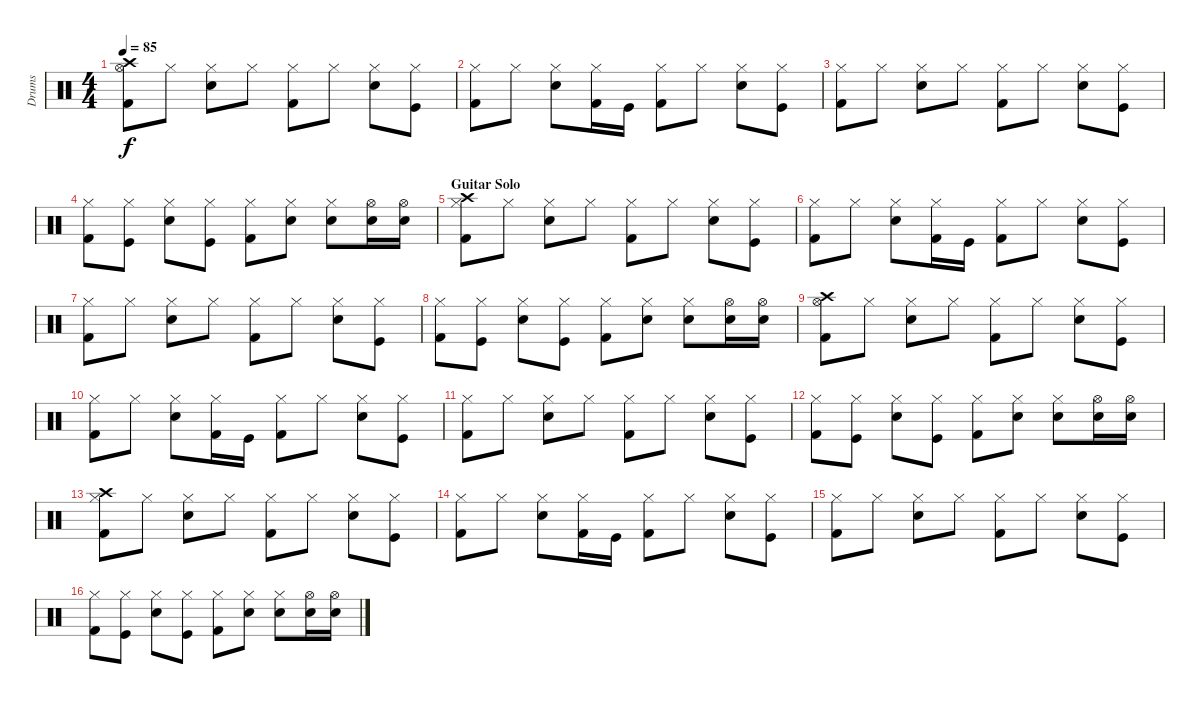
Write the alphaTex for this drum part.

\track ("Drums" "Drums") {instrument percussion}
\staff {score}
\articulation defaults
\ts (4 4)
\tempo 85
\clef neutral
\ks c
("Hi-Hat (open)" "Crash high (hit)" "Kick (hit) 2").8{dy f} "Hi-Hat (closed)".8 ("Hi-Hat (closed)" "Snare (hit) 2").8 "Hi-Hat (closed)".8 ("Hi-Hat (closed)" "Kick (hit) 2").8 "Hi-Hat (closed)".8 ("Hi-Hat (closed)" "Snare (hit) 2").8 ("Hi-Hat (closed)" "Kick (hit)").8 |
("Hi-Hat (closed)" "Kick (hit) 2").8 "Hi-Hat (closed)".8 ("Hi-Hat (closed)" "Snare (hit) 2").8 ("Hi-Hat (closed)" "Kick (hit) 2").16 "Kick (hit)".16 ("Hi-Hat (closed)" "Kick (hit) 2").8 "Hi-Hat (closed)".8 ("Hi-Hat (closed)" "Snare (hit) 2").8 ("Hi-Hat (closed)" "Kick (hit)").8 |
("Hi-Hat (closed)" "Kick (hit) 2").8 "Hi-Hat (closed)".8 ("Hi-Hat (closed)" "Snare (hit) 2").8 "Hi-Hat (closed)".8 ("Hi-Hat (closed)" "Kick (hit) 2").8 "Hi-Hat (closed)".8 ("Hi-Hat (closed)" "Snare (hit) 2").8 ("Hi-Hat (closed)" "Kick (hit)").8 |
("Hi-Hat (closed)" "Kick (hit) 2").8 ("Hi-Hat (closed)" "Kick (hit)").8 ("Hi-Hat (closed)" "Snare (hit) 2").8 ("Hi-Hat (closed)" "Kick (hit)").8 ("Hi-Hat (closed)" "Kick (hit) 2").8 ("Hi-Hat (closed)" "Snare (hit) 2").8 ("Hi-Hat (closed)" "Snare (hit) 2").8 ("Hi-Hat (open)" "Snare (hit) 2").16 ("Hi-Hat (open)" "Snare (hit) 2").16 |
\section ("" "Guitar Solo")
("Hi-Hat (closed)" "Crash high (hit)" "Kick (hit) 2").8 "Hi-Hat (closed)".8 ("Hi-Hat (closed)" "Snare (hit) 2").8 "Hi-Hat (closed)".8 ("Hi-Hat (closed)" "Kick (hit) 2").8 "Hi-Hat (closed)".8 ("Hi-Hat (closed)" "Snare (hit) 2").8 ("Hi-Hat (closed)" "Kick (hit)").8 |
("Hi-Hat (closed)" "Kick (hit) 2").8 "Hi-Hat (closed)".8 ("Hi-Hat (closed)" "Snare (hit) 2").8 ("Hi-Hat (closed)" "Kick (hit) 2").16 "Kick (hit)".16 ("Hi-Hat (closed)" "Kick (hit) 2").8 "Hi-Hat (closed)".8 ("Hi-Hat (closed)" "Snare (hit) 2").8 ("Hi-Hat (closed)" "Kick (hit)").8 |
("Hi-Hat (closed)" "Kick (hit) 2").8 "Hi-Hat (closed)".8 ("Hi-Hat (closed)" "Snare (hit) 2").8 "Hi-Hat (closed)".8 ("Hi-Hat (closed)" "Kick (hit) 2").8 "Hi-Hat (closed)".8 ("Hi-Hat (closed)" "Snare (hit) 2").8 ("Hi-Hat (closed)" "Kick (hit)").8 |
("Hi-Hat (closed)" "Kick (hit) 2").8 ("Hi-Hat (closed)" "Kick (hit)").8 ("Hi-Hat (closed)" "Snare (hit) 2").8 ("Hi-Hat (closed)" "Kick (hit)").8 ("Hi-Hat (closed)" "Kick (hit) 2").8 ("Hi-Hat (closed)" "Snare (hit) 2").8 ("Hi-Hat (closed)" "Snare (hit) 2").8 ("Hi-Hat (open)" "Snare (hit) 2").16 ("Hi-Hat (open)" "Snare (hit) 2").16 |
("Hi-Hat (open)" "Crash high (hit)" "Kick (hit) 2").8 "Hi-Hat (closed)".8 ("Hi-Hat (closed)" "Snare (hit) 2").8 "Hi-Hat (closed)".8 ("Hi-Hat (closed)" "Kick (hit) 2").8 "Hi-Hat (closed)".8 ("Hi-Hat (closed)" "Snare (hit) 2").8 ("Hi-Hat (closed)" "Kick (hit)").8 |
("Hi-Hat (closed)" "Kick (hit) 2").8 "Hi-Hat (closed)".8 ("Hi-Hat (closed)" "Snare (hit) 2").8 ("Hi-Hat (closed)" "Kick (hit) 2").16 "Kick (hit)".16 ("Hi-Hat (closed)" "Kick (hit) 2").8 "Hi-Hat (closed)".8 ("Hi-Hat (closed)" "Snare (hit) 2").8 ("Hi-Hat (closed)" "Kick (hit)").8 |
("Hi-Hat (closed)" "Kick (hit) 2").8 "Hi-Hat (closed)".8 ("Hi-Hat (closed)" "Snare (hit) 2").8 "Hi-Hat (closed)".8 ("Hi-Hat (closed)" "Kick (hit) 2").8 "Hi-Hat (closed)".8 ("Hi-Hat (closed)" "Snare (hit) 2").8 ("Hi-Hat (closed)" "Kick (hit)").8 |
("Hi-Hat (closed)" "Kick (hit) 2").8 ("Hi-Hat (closed)" "Kick (hit)").8 ("Hi-Hat (closed)" "Snare (hit) 2").8 ("Hi-Hat (closed)" "Kick (hit)").8 ("Hi-Hat (closed)" "Kick (hit) 2").8 ("Hi-Hat (closed)" "Snare (hit) 2").8 ("Hi-Hat (closed)" "Snare (hit) 2").8 ("Hi-Hat (open)" "Snare (hit) 2").16 ("Hi-Hat (open)" "Snare (hit) 2").16 |
("Hi-Hat (closed)" "Crash high (hit)" "Kick (hit) 2").8 "Hi-Hat (closed)".8 ("Hi-Hat (closed)" "Snare (hit) 2").8 "Hi-Hat (closed)".8 ("Hi-Hat (closed)" "Kick (hit) 2").8 "Hi-Hat (closed)".8 ("Hi-Hat (closed)" "Snare (hit) 2").8 ("Hi-Hat (closed)" "Kick (hit)").8 |
("Hi-Hat (closed)" "Kick (hit) 2").8 "Hi-Hat (closed)".8 ("Hi-Hat (closed)" "Snare (hit) 2").8 ("Hi-Hat (closed)" "Kick (hit) 2").16 "Kick (hit)".16 ("Hi-Hat (closed)" "Kick (hit) 2").8 "Hi-Hat (closed)".8 ("Hi-Hat (closed)" "Snare (hit) 2").8 ("Hi-Hat (closed)" "Kick (hit)").8 |
("Hi-Hat (closed)" "Kick (hit) 2").8 "Hi-Hat (closed)".8 ("Hi-Hat (closed)" "Snare (hit) 2").8 "Hi-Hat (closed)".8 ("Hi-Hat (closed)" "Kick (hit) 2").8 "Hi-Hat (closed)".8 ("Hi-Hat (closed)" "Snare (hit) 2").8 ("Hi-Hat (closed)" "Kick (hit)").8 |
("Hi-Hat (closed)" "Kick (hit) 2").8 ("Hi-Hat (closed)" "Kick (hit)").8 ("Hi-Hat (closed)" "Snare (hit) 2").8 ("Hi-Hat (closed)" "Kick (hit)").8 ("Hi-Hat (closed)" "Kick (hit) 2").8 ("Hi-Hat (closed)" "Snare (hit) 2").8 ("Hi-Hat (closed)" "Snare (hit) 2").8 ("Hi-Hat (open)" "Snare (hit) 2").16 ("Hi-Hat (open)" "Snare (hit) 2").16
